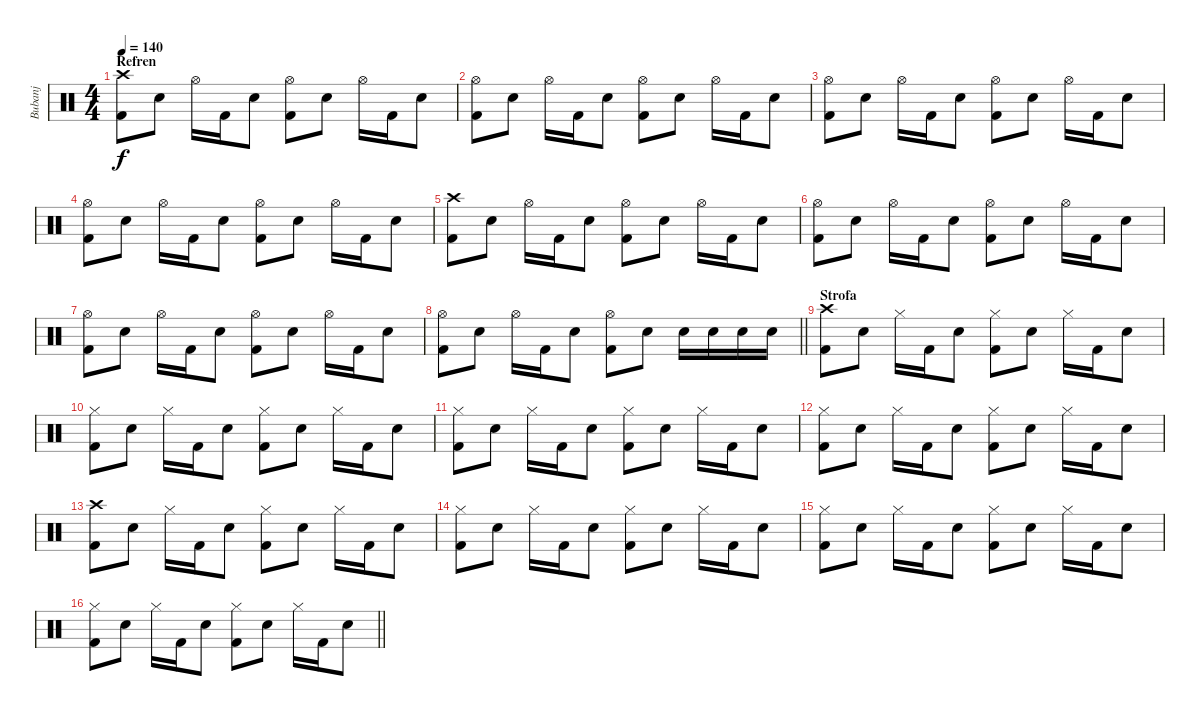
\track ("Bubanj" "Bubanj") {instrument percussion}
\staff {score}
\articulation defaults
\ts (4 4)
\section ("" "Refren")
\tempo 140
\clef neutral
\ks c
("Kick (hit) 2" "Crash high (hit)").8{dy f} "Snare (hit) 2".8 "Hi-Hat (open)".16 "Kick (hit) 2".16 "Snare (hit) 2".8 ("Kick (hit) 2" "Hi-Hat (open)").8 "Snare (hit) 2".8 "Hi-Hat (open)".16 "Kick (hit) 2".16 "Snare (hit) 2".8 |
("Kick (hit) 2" "Hi-Hat (open)").8 "Snare (hit) 2".8 "Hi-Hat (open)".16 "Kick (hit) 2".16 "Snare (hit) 2".8 ("Kick (hit) 2" "Hi-Hat (open)").8 "Snare (hit) 2".8 "Hi-Hat (open)".16 "Kick (hit) 2".16 "Snare (hit) 2".8 |
("Kick (hit) 2" "Hi-Hat (open)").8 "Snare (hit) 2".8 "Hi-Hat (open)".16 "Kick (hit) 2".16 "Snare (hit) 2".8 ("Kick (hit) 2" "Hi-Hat (open)").8 "Snare (hit) 2".8 "Hi-Hat (open)".16 "Kick (hit) 2".16 "Snare (hit) 2".8 |
("Kick (hit) 2" "Hi-Hat (open)").8 "Snare (hit) 2".8 "Hi-Hat (open)".16 "Kick (hit) 2".16 "Snare (hit) 2".8 ("Kick (hit) 2" "Hi-Hat (open)").8 "Snare (hit) 2".8 "Hi-Hat (open)".16 "Kick (hit) 2".16 "Snare (hit) 2".8 |
("Kick (hit) 2" "Crash high (hit)").8 "Snare (hit) 2".8 "Hi-Hat (open)".16 "Kick (hit) 2".16 "Snare (hit) 2".8 ("Kick (hit) 2" "Hi-Hat (open)").8 "Snare (hit) 2".8 "Hi-Hat (open)".16 "Kick (hit) 2".16 "Snare (hit) 2".8 |
("Kick (hit) 2" "Hi-Hat (open)").8 "Snare (hit) 2".8 "Hi-Hat (open)".16 "Kick (hit) 2".16 "Snare (hit) 2".8 ("Kick (hit) 2" "Hi-Hat (open)").8 "Snare (hit) 2".8 "Hi-Hat (open)".16 "Kick (hit) 2".16 "Snare (hit) 2".8 |
("Kick (hit) 2" "Hi-Hat (open)").8 "Snare (hit) 2".8 "Hi-Hat (open)".16 "Kick (hit) 2".16 "Snare (hit) 2".8 ("Kick (hit) 2" "Hi-Hat (open)").8 "Snare (hit) 2".8 "Hi-Hat (open)".16 "Kick (hit) 2".16 "Snare (hit) 2".8 |
\barLineRight lightlight
("Kick (hit) 2" "Hi-Hat (open)").8 "Snare (hit) 2".8 "Hi-Hat (open)".16 "Kick (hit) 2".16 "Snare (hit) 2".8 ("Kick (hit) 2" "Hi-Hat (open)").8 "Snare (hit) 2".8 "Snare (hit) 2".16 "Snare (hit) 2".16 "Snare (hit) 2".16 "Snare (hit) 2".16 |
\section ("" "Strofa")
("Kick (hit) 2" "Crash high (hit)").8 "Snare (hit) 2".8 "Hi-Hat (closed)".16 "Kick (hit) 2".16 "Snare (hit) 2".8 ("Kick (hit) 2" "Hi-Hat (closed)").8 "Snare (hit) 2".8 "Hi-Hat (closed)".16 "Kick (hit) 2".16 "Snare (hit) 2".8 |
("Kick (hit) 2" "Hi-Hat (closed)").8 "Snare (hit) 2".8 "Hi-Hat (closed)".16 "Kick (hit) 2".16 "Snare (hit) 2".8 ("Kick (hit) 2" "Hi-Hat (closed)").8 "Snare (hit) 2".8 "Hi-Hat (closed)".16 "Kick (hit) 2".16 "Snare (hit) 2".8 |
("Kick (hit) 2" "Hi-Hat (closed)").8 "Snare (hit) 2".8 "Hi-Hat (closed)".16 "Kick (hit) 2".16 "Snare (hit) 2".8 ("Kick (hit) 2" "Hi-Hat (closed)").8 "Snare (hit) 2".8 "Hi-Hat (closed)".16 "Kick (hit) 2".16 "Snare (hit) 2".8 |
("Kick (hit) 2" "Hi-Hat (closed)").8 "Snare (hit) 2".8 "Hi-Hat (closed)".16 "Kick (hit) 2".16 "Snare (hit) 2".8 ("Kick (hit) 2" "Hi-Hat (closed)").8 "Snare (hit) 2".8 "Hi-Hat (closed)".16 "Kick (hit) 2".16 "Snare (hit) 2".8 |
("Kick (hit) 2" "Crash high (hit)").8 "Snare (hit) 2".8 "Hi-Hat (closed)".16 "Kick (hit) 2".16 "Snare (hit) 2".8 ("Kick (hit) 2" "Hi-Hat (closed)").8 "Snare (hit) 2".8 "Hi-Hat (closed)".16 "Kick (hit) 2".16 "Snare (hit) 2".8 |
("Kick (hit) 2" "Hi-Hat (closed)").8 "Snare (hit) 2".8 "Hi-Hat (closed)".16 "Kick (hit) 2".16 "Snare (hit) 2".8 ("Kick (hit) 2" "Hi-Hat (closed)").8 "Snare (hit) 2".8 "Hi-Hat (closed)".16 "Kick (hit) 2".16 "Snare (hit) 2".8 |
("Kick (hit) 2" "Hi-Hat (closed)").8 "Snare (hit) 2".8 "Hi-Hat (closed)".16 "Kick (hit) 2".16 "Snare (hit) 2".8 ("Kick (hit) 2" "Hi-Hat (closed)").8 "Snare (hit) 2".8 "Hi-Hat (closed)".16 "Kick (hit) 2".16 "Snare (hit) 2".8 |
\barLineRight lightlight
("Kick (hit) 2" "Hi-Hat (closed)").8 "Snare (hit) 2".8 "Hi-Hat (closed)".16 "Kick (hit) 2".16 "Snare (hit) 2".8 ("Kick (hit) 2" "Hi-Hat (closed)").8 "Snare (hit) 2".8 "Hi-Hat (closed)".16 "Kick (hit) 2".16 "Snare (hit) 2".8
